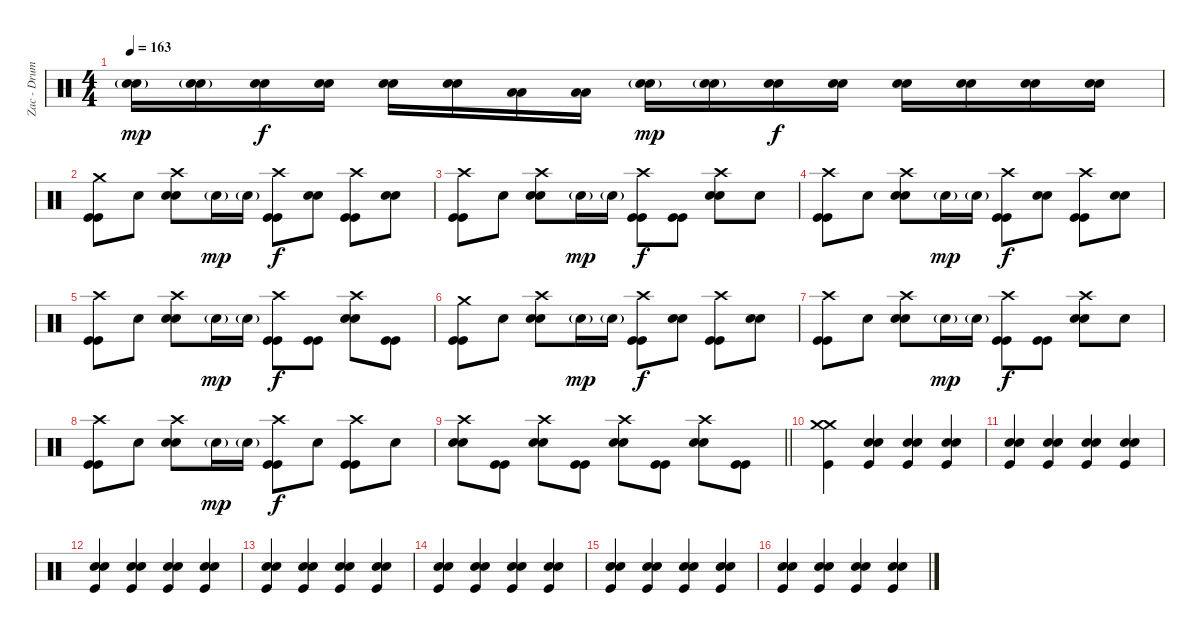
\track ("Zac - Drums" "Zac - Drum") {instrument percussion}
\staff {score}
\articulation defaults
\ts (4 4)
\tempo 163
\clef neutral
\ks c
("Electric Snare (hit)"{g} "Electric Snare (hit)"{g}).16{dy mp} ("Electric Snare (hit)"{g} "Electric Snare (hit)"{g}).16 ("Electric Snare (hit)" "Electric Snare (hit)").16{dy f} ("Electric Snare (hit)" "Electric Snare (hit)").16 ("Electric Snare (hit)" "Electric Snare (hit)").16 ("Electric Snare (hit)" "Electric Snare (hit)").16 ("Low Tom (hit)" "Low Tom (hit)").16 ("Low Tom (hit)" "Low Tom (hit)").16 ("Electric Snare (hit)"{g} "Electric Snare (hit)"{g}).16{dy mp} ("Electric Snare (hit)"{g} "Electric Snare (hit)"{g}).16 ("Electric Snare (hit)" "Electric Snare (hit)").16{dy f} ("Electric Snare (hit)" "Electric Snare (hit)").16 ("Electric Snare (hit)" "Electric Snare (hit)").16 ("Electric Snare (hit)" "Electric Snare (hit)").16 ("Electric Snare (hit)" "Electric Snare (hit)").16 ("Electric Snare (hit)" "Electric Snare (hit)").16 |
("Crash medium (hit)" "Kick (hit)" "Kick (hit)").8 "Snare (hit)".8 ("Crash high (hit)" "Electric Snare (hit)" "Electric Snare (hit)").8 "Electric Snare (hit)"{g}.16{dy mp} "Electric Snare (hit)"{g}.16 ("Crash high (hit)" "Kick (hit)" "Kick (hit)").8{dy f} ("Electric Snare (hit)" "Electric Snare (hit)").8 ("Crash high (hit)" "Kick (hit)" "Kick (hit)").8 ("Electric Snare (hit)" "Electric Snare (hit)").8 |
("Crash high (hit)" "Kick (hit)" "Kick (hit)").8 "Snare (hit)".8 ("Crash high (hit)" "Electric Snare (hit)" "Electric Snare (hit)").8 "Electric Snare (hit)"{g}.16{dy mp} "Electric Snare (hit)"{g}.16 ("Crash high (hit)" "Kick (hit)" "Kick (hit)").8{dy f} ("Kick (hit)" "Kick (hit)").8 ("Crash high (hit)" "Electric Snare (hit)" "Electric Snare (hit)").8 "Snare (hit)".8 |
("Crash high (hit)" "Kick (hit)" "Kick (hit)").8 "Snare (hit)".8 ("Crash high (hit)" "Electric Snare (hit)" "Electric Snare (hit)").8 "Electric Snare (hit)"{g}.16{dy mp} "Electric Snare (hit)"{g}.16 ("Crash high (hit)" "Kick (hit)" "Kick (hit)").8{dy f} ("Electric Snare (hit)" "Electric Snare (hit)").8 ("Crash high (hit)" "Kick (hit)" "Kick (hit)").8 ("Electric Snare (hit)" "Electric Snare (hit)").8 |
("Crash high (hit)" "Kick (hit)" "Kick (hit)").8 "Snare (hit)".8 ("Crash high (hit)" "Electric Snare (hit)" "Electric Snare (hit)").8 "Electric Snare (hit)"{g}.16{dy mp} "Electric Snare (hit)"{g}.16 ("Crash high (hit)" "Kick (hit)" "Kick (hit)").8{dy f} ("Kick (hit)" "Kick (hit)").8 ("Crash high (hit)" "Electric Snare (hit)" "Electric Snare (hit)").8 ("Kick (hit)" "Kick (hit)").8 |
("Crash medium (hit)" "Kick (hit)" "Kick (hit)").8 "Snare (hit)".8 ("Crash high (hit)" "Electric Snare (hit)" "Electric Snare (hit)").8 "Electric Snare (hit)"{g}.16{dy mp} "Electric Snare (hit)"{g}.16 ("Crash high (hit)" "Kick (hit)" "Kick (hit)").8{dy f} ("Electric Snare (hit)" "Electric Snare (hit)").8 ("Crash high (hit)" "Kick (hit)" "Kick (hit)").8 ("Electric Snare (hit)" "Electric Snare (hit)").8 |
("Crash high (hit)" "Kick (hit)" "Kick (hit)").8 "Snare (hit)".8 ("Crash high (hit)" "Electric Snare (hit)" "Electric Snare (hit)").8 "Electric Snare (hit)"{g}.16{dy mp} "Electric Snare (hit)"{g}.16 ("Crash high (hit)" "Kick (hit)" "Kick (hit)").8{dy f} ("Kick (hit)" "Kick (hit)").8 ("Crash high (hit)" "Electric Snare (hit)" "Electric Snare (hit)").8 "Snare (hit)".8 |
("Crash high (hit)" "Kick (hit)" "Kick (hit)").8 "Snare (hit)".8 ("Crash high (hit)" "Electric Snare (hit)" "Electric Snare (hit)").8 "Electric Snare (hit)"{g}.16{dy mp} "Electric Snare (hit)"{g}.16 ("Crash high (hit)" "Kick (hit)" "Kick (hit)").8{dy f} "Snare (hit)".8 ("Crash high (hit)" "Kick (hit)" "Kick (hit)").8 "Snare (hit)".8 |
\barLineRight lightlight
("Crash high (hit)" "Electric Snare (hit)" "Electric Snare (hit)").8 ("Kick (hit)" "Kick (hit)").8 ("Crash high (hit)" "Electric Snare (hit)" "Electric Snare (hit)").8 ("Kick (hit)" "Kick (hit)").8 ("Crash high (hit)" "Electric Snare (hit)" "Electric Snare (hit)").8 ("Kick (hit)" "Kick (hit)").8 ("Crash high (hit)" "Electric Snare (hit)" "Electric Snare (hit)").8 ("Kick (hit)" "Kick (hit)").8 |
("Crash medium (hit)" "Crash medium (hit)" "Kick (hit)").4 ("Hand Clap (hit)" "Hand Clap (hit)" "Kick (hit)").4 ("Hand Clap (hit)" "Hand Clap (hit)" "Kick (hit)").4 ("Hand Clap (hit)" "Hand Clap (hit)" "Kick (hit)").4 |
("Hand Clap (hit)" "Hand Clap (hit)" "Kick (hit)").4 ("Hand Clap (hit)" "Hand Clap (hit)" "Kick (hit)").4 ("Hand Clap (hit)" "Hand Clap (hit)" "Kick (hit)").4 ("Hand Clap (hit)" "Hand Clap (hit)" "Kick (hit)").4 |
("Hand Clap (hit)" "Hand Clap (hit)" "Kick (hit)").4 ("Hand Clap (hit)" "Hand Clap (hit)" "Kick (hit)").4 ("Hand Clap (hit)" "Hand Clap (hit)" "Kick (hit)").4 ("Hand Clap (hit)" "Hand Clap (hit)" "Kick (hit)").4 |
("Hand Clap (hit)" "Hand Clap (hit)" "Kick (hit)").4 ("Hand Clap (hit)" "Hand Clap (hit)" "Kick (hit)").4 ("Hand Clap (hit)" "Hand Clap (hit)" "Kick (hit)").4 ("Hand Clap (hit)" "Hand Clap (hit)" "Kick (hit)").4 |
("Hand Clap (hit)" "Hand Clap (hit)" "Kick (hit)").4 ("Hand Clap (hit)" "Hand Clap (hit)" "Kick (hit)").4 ("Hand Clap (hit)" "Hand Clap (hit)" "Kick (hit)").4 ("Hand Clap (hit)" "Hand Clap (hit)" "Kick (hit)").4 |
("Hand Clap (hit)" "Hand Clap (hit)" "Kick (hit)").4 ("Hand Clap (hit)" "Hand Clap (hit)" "Kick (hit)").4 ("Hand Clap (hit)" "Hand Clap (hit)" "Kick (hit)").4 ("Hand Clap (hit)" "Hand Clap (hit)" "Kick (hit)").4 |
("Hand Clap (hit)" "Hand Clap (hit)" "Kick (hit)").4 ("Hand Clap (hit)" "Hand Clap (hit)" "Kick (hit)").4 ("Hand Clap (hit)" "Hand Clap (hit)" "Kick (hit)").4 ("Hand Clap (hit)" "Hand Clap (hit)" "Kick (hit)").4
